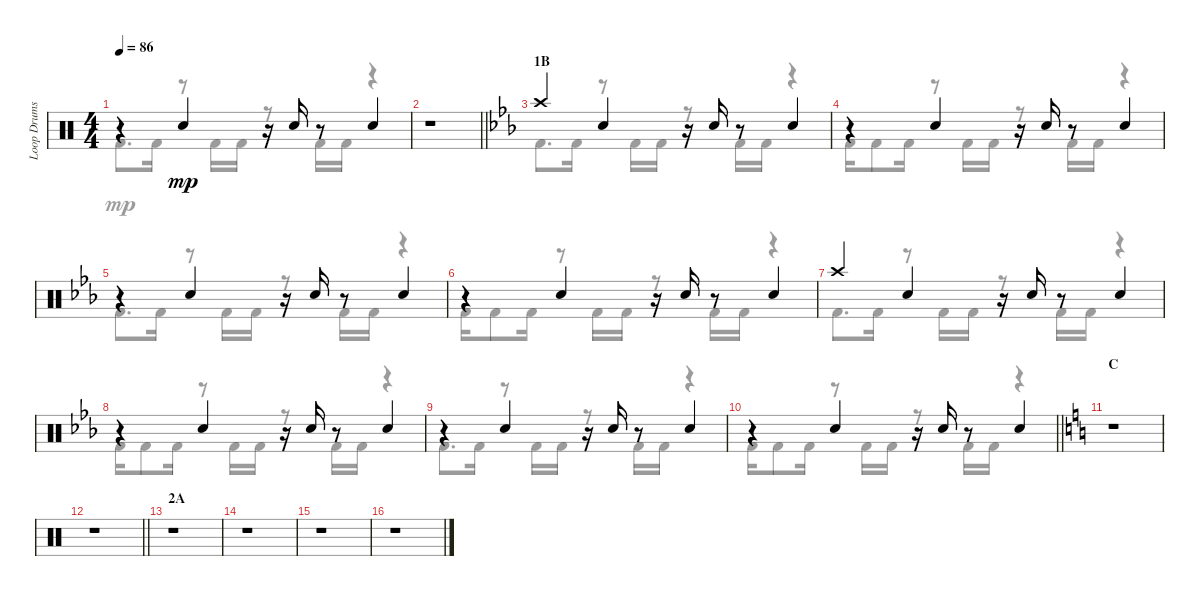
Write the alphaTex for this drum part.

\track ("Loop Drums I" "Loop Drums") {instrument percussion}
\staff {score}
\articulation defaults
\voice
\ts (4 4)
\tempo 86
\clef neutral
\ks c
r.4{dy mp} "Electric Snare (hit)".4 r.16 "Electric Snare (hit)".16 r.8 "Electric Snare (hit)".4 |
\barLineRight lightlight
r.1 |
\section ("" "1B")
\ks eb "Crash high (hit)".4 "Electric Snare (hit)".4
r.16 "Electric Snare (hit)".16 r.8 "Electric Snare (hit)".4 |
r.4 "Electric Snare (hit)".4 r.16 "Electric Snare (hit)".16 r.8 "Electric Snare (hit)".4 |
r.4 "Electric Snare (hit)".4 r.16 "Electric Snare (hit)".16 r.8 "Electric Snare (hit)".4 |
r.4 "Electric Snare (hit)".4 r.16 "Electric Snare (hit)".16 r.8 "Electric Snare (hit)".4 |
"Crash high (hit)".4 "Electric Snare (hit)".4 r.16 "Electric Snare (hit)".16 r.8 "Electric Snare (hit)".4 |
r.4 "Electric Snare (hit)".4 r.16 "Electric Snare (hit)".16 r.8 "Electric Snare (hit)".4 |
r.4 "Electric Snare (hit)".4 r.16 "Electric Snare (hit)".16 r.8 "Electric Snare (hit)".4 |
\barLineRight lightlight
r.4 "Electric Snare (hit)".4 r.16 "Electric Snare (hit)".16 r.8 "Electric Snare (hit)".4 |
\section ("" "C")
\ks c
r.1 |
\barLineRight lightlight
r.1 |
\section ("" "2A")
r.1 |
r.1 |
r.1 |
r.1
\voice
\clef neutral
\ottava regular
\simile none
\ks c "Kick (hit) 2".8{d dy mp} "Kick (hit) 2".16
r.8 "Kick (hit) 2".16 "Kick (hit) 2".16 r.8 "Kick (hit) 2".16 "Kick (hit) 2".16 r.4 |
\barLineRight lightlight
r.1 |
\ks eb "Kick (hit) 2".8{d} "Kick (hit) 2".16
r.8 "Kick (hit) 2".16 "Kick (hit) 2".16 r.8 "Kick (hit) 2".16 "Kick (hit) 2".16 r.4 |
"Kick (hit) 2".16 "Kick (hit) 2".8 "Kick (hit) 2".16 r.8 "Kick (hit) 2".16 "Kick (hit) 2".16 r.8 "Kick (hit) 2".16 "Kick (hit) 2".16 r.4 |
"Kick (hit) 2".8{d} "Kick (hit) 2".16 r.8 "Kick (hit) 2".16 "Kick (hit) 2".16 r.8 "Kick (hit) 2".16 "Kick (hit) 2".16 r.4 |
"Kick (hit) 2".16 "Kick (hit) 2".8 "Kick (hit) 2".16 r.8 "Kick (hit) 2".16 "Kick (hit) 2".16 r.8 "Kick (hit) 2".16 "Kick (hit) 2".16 r.4 |
"Kick (hit) 2".8{d} "Kick (hit) 2".16 r.8 "Kick (hit) 2".16 "Kick (hit) 2".16 r.8 "Kick (hit) 2".16 "Kick (hit) 2".16 r.4 |
"Kick (hit) 2".16 "Kick (hit) 2".8 "Kick (hit) 2".16 r.8 "Kick (hit) 2".16 "Kick (hit) 2".16 r.8 "Kick (hit) 2".16 "Kick (hit) 2".16 r.4 |
"Kick (hit) 2".8{d} "Kick (hit) 2".16 r.8 "Kick (hit) 2".16 "Kick (hit) 2".16 r.8 "Kick (hit) 2".16 "Kick (hit) 2".16 r.4 |
\barLineRight lightlight "Kick (hit) 2".16 "Kick (hit) 2".8 "Kick (hit) 2".16
r.8 "Kick (hit) 2".16 "Kick (hit) 2".16 r.8 "Kick (hit) 2".16 "Kick (hit) 2".16 r.4 |
\ks c
r.1 |
\barLineRight lightlight
r.1 |
r.1 |
r.1 |
r.1 |
r.1
